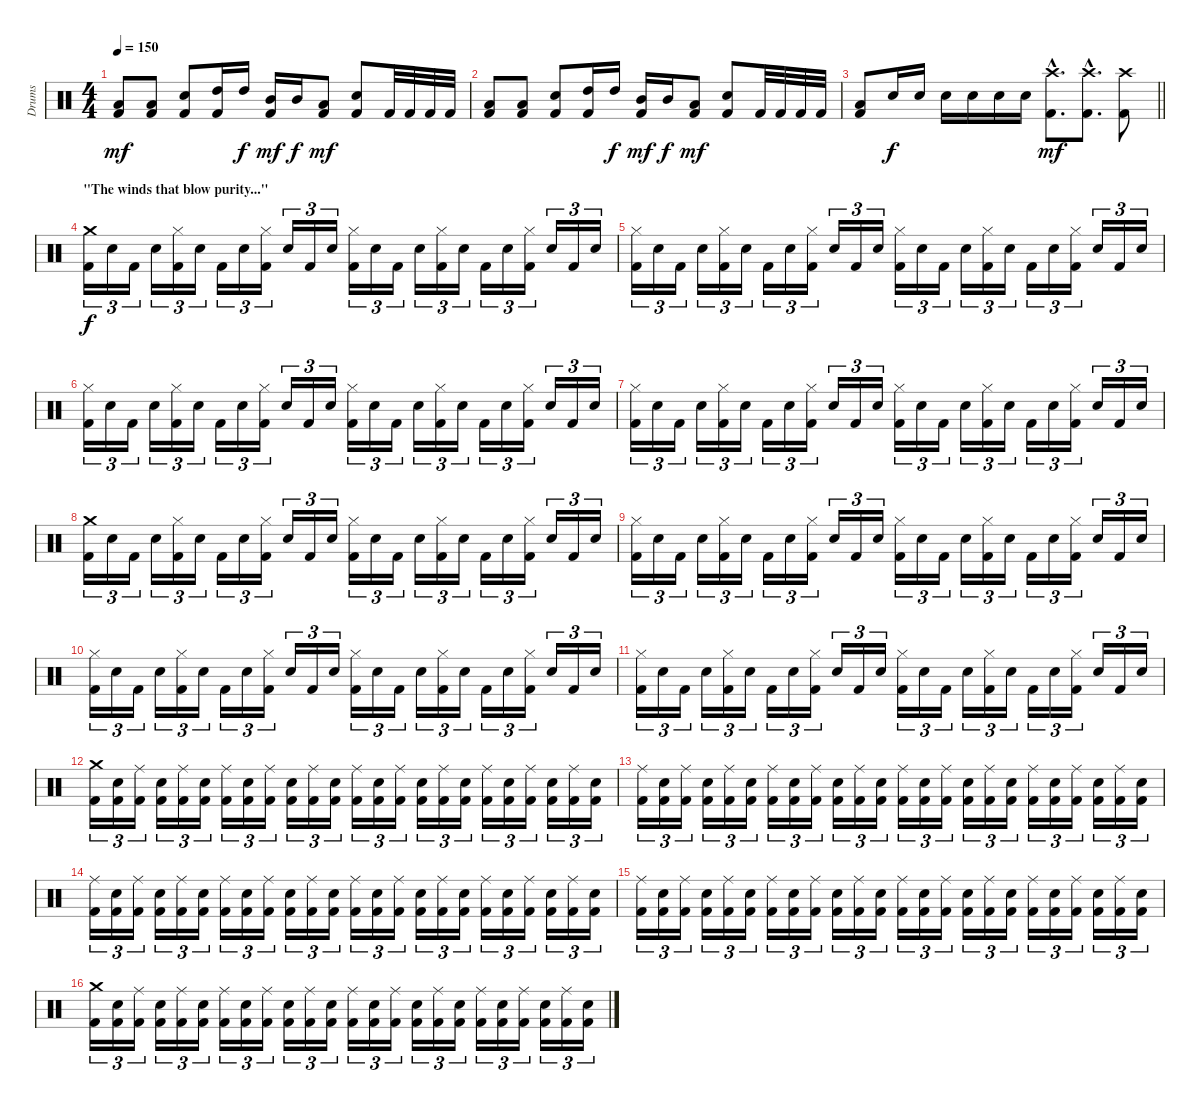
\track ("Drums" "Drums") {instrument percussion}
\staff {score}
\articulation defaults
\ts (4 4)
\tempo 150
\clef neutral
\ks c
("Low Tom (hit)" "Kick (hit) 2").8{dy mf} ("Low Tom (hit)" "Kick (hit) 2").8 ("Electric Snare (hit)" "Kick (hit) 2").8 ("High Tom (hit)" "Kick (hit) 2").16 "High Tom (hit)".16{dy f} ("Mid Tom (hit)" "Kick (hit) 2").16{dy mf} "Mid Tom (hit)".16{dy f} ("Low Tom (hit)" "Kick (hit) 2").8{dy mf} ("Electric Snare (hit)" "Kick (hit) 2").8 "Kick (hit) 2".32 "Kick (hit) 2".32 "Kick (hit) 2".32 "Kick (hit) 2".32 |
("Low Tom (hit)" "Kick (hit) 2").8 ("Low Tom (hit)" "Kick (hit) 2").8 ("Electric Snare (hit)" "Kick (hit) 2").8 ("High Tom (hit)" "Kick (hit) 2").16 "High Tom (hit)".16{dy f} ("Mid Tom (hit)" "Kick (hit) 2").16{dy mf} "Mid Tom (hit)".16{dy f} ("Low Tom (hit)" "Kick (hit) 2").8{dy mf} ("Electric Snare (hit)" "Kick (hit) 2").8 "Kick (hit) 2".32 "Kick (hit) 2".32 "Kick (hit) 2".32 "Kick (hit) 2".32 |
\barLineRight lightlight
("Low Tom (hit)" "Kick (hit) 2").8 "Electric Snare (hit)".16{dy f} "Electric Snare (hit)".16 "Electric Snare (hit)".16 "Electric Snare (hit)".16 "Electric Snare (hit)".16 "Electric Snare (hit)".16 ("Crash high (hit)"{hac} "Kick (hit) 2"{hac}).8{d dy mf} ("Crash high (hit)"{hac} "Kick (hit) 2"{hac}).8{d} ("Crash high (hit)" "Kick (hit) 2").8 |
\section ("" "\"The winds that blow purity...\"")
("Crash medium (hit)" "Kick (hit) 2").16{tu (3 2) dy f} "Electric Snare (hit)".16{tu (3 2)} "Kick (hit) 2".16{tu (3 2)} "Electric Snare (hit)".16{tu (3 2)} ("Hi-Hat (closed)" "Kick (hit) 2").16{tu (3 2)} "Electric Snare (hit)".16{tu (3 2)} "Kick (hit) 2".16{tu (3 2)} "Electric Snare (hit)".16{tu (3 2)} ("Hi-Hat (closed)" "Kick (hit) 2").16{tu (3 2)} "Electric Snare (hit)".16{tu (3 2)} "Kick (hit) 2".16{tu (3 2)} "Electric Snare (hit)".16{tu (3 2)} ("Hi-Hat (closed)" "Kick (hit) 2").16{tu (3 2)} "Electric Snare (hit)".16{tu (3 2)} "Kick (hit) 2".16{tu (3 2)} "Electric Snare (hit)".16{tu (3 2)} ("Hi-Hat (closed)" "Kick (hit) 2").16{tu (3 2)} "Electric Snare (hit)".16{tu (3 2)} "Kick (hit) 2".16{tu (3 2)} "Electric Snare (hit)".16{tu (3 2)} ("Hi-Hat (closed)" "Kick (hit) 2").16{tu (3 2)} "Electric Snare (hit)".16{tu (3 2)} "Kick (hit) 2".16{tu (3 2)} "Electric Snare (hit)".16{tu (3 2)} |
("Hi-Hat (closed)" "Kick (hit) 2").16{tu (3 2)} "Electric Snare (hit)".16{tu (3 2)} "Kick (hit) 2".16{tu (3 2)} "Electric Snare (hit)".16{tu (3 2)} ("Hi-Hat (closed)" "Kick (hit) 2").16{tu (3 2)} "Electric Snare (hit)".16{tu (3 2)} "Kick (hit) 2".16{tu (3 2)} "Electric Snare (hit)".16{tu (3 2)} ("Hi-Hat (closed)" "Kick (hit) 2").16{tu (3 2)} "Electric Snare (hit)".16{tu (3 2)} "Kick (hit) 2".16{tu (3 2)} "Electric Snare (hit)".16{tu (3 2)} ("Hi-Hat (closed)" "Kick (hit) 2").16{tu (3 2)} "Electric Snare (hit)".16{tu (3 2)} "Kick (hit) 2".16{tu (3 2)} "Electric Snare (hit)".16{tu (3 2)} ("Hi-Hat (closed)" "Kick (hit) 2").16{tu (3 2)} "Electric Snare (hit)".16{tu (3 2)} "Kick (hit) 2".16{tu (3 2)} "Electric Snare (hit)".16{tu (3 2)} ("Hi-Hat (closed)" "Kick (hit) 2").16{tu (3 2)} "Electric Snare (hit)".16{tu (3 2)} "Kick (hit) 2".16{tu (3 2)} "Electric Snare (hit)".16{tu (3 2)} |
("Hi-Hat (closed)" "Kick (hit) 2").16{tu (3 2)} "Electric Snare (hit)".16{tu (3 2)} "Kick (hit) 2".16{tu (3 2)} "Electric Snare (hit)".16{tu (3 2)} ("Hi-Hat (closed)" "Kick (hit) 2").16{tu (3 2)} "Electric Snare (hit)".16{tu (3 2)} "Kick (hit) 2".16{tu (3 2)} "Electric Snare (hit)".16{tu (3 2)} ("Hi-Hat (closed)" "Kick (hit) 2").16{tu (3 2)} "Electric Snare (hit)".16{tu (3 2)} "Kick (hit) 2".16{tu (3 2)} "Electric Snare (hit)".16{tu (3 2)} ("Hi-Hat (closed)" "Kick (hit) 2").16{tu (3 2)} "Electric Snare (hit)".16{tu (3 2)} "Kick (hit) 2".16{tu (3 2)} "Electric Snare (hit)".16{tu (3 2)} ("Hi-Hat (closed)" "Kick (hit) 2").16{tu (3 2)} "Electric Snare (hit)".16{tu (3 2)} "Kick (hit) 2".16{tu (3 2)} "Electric Snare (hit)".16{tu (3 2)} ("Hi-Hat (closed)" "Kick (hit) 2").16{tu (3 2)} "Electric Snare (hit)".16{tu (3 2)} "Kick (hit) 2".16{tu (3 2)} "Electric Snare (hit)".16{tu (3 2)} |
("Hi-Hat (closed)" "Kick (hit) 2").16{tu (3 2)} "Electric Snare (hit)".16{tu (3 2)} "Kick (hit) 2".16{tu (3 2)} "Electric Snare (hit)".16{tu (3 2)} ("Hi-Hat (closed)" "Kick (hit) 2").16{tu (3 2)} "Electric Snare (hit)".16{tu (3 2)} "Kick (hit) 2".16{tu (3 2)} "Electric Snare (hit)".16{tu (3 2)} ("Hi-Hat (closed)" "Kick (hit) 2").16{tu (3 2)} "Electric Snare (hit)".16{tu (3 2)} "Kick (hit) 2".16{tu (3 2)} "Electric Snare (hit)".16{tu (3 2)} ("Hi-Hat (closed)" "Kick (hit) 2").16{tu (3 2)} "Electric Snare (hit)".16{tu (3 2)} "Kick (hit) 2".16{tu (3 2)} "Electric Snare (hit)".16{tu (3 2)} ("Hi-Hat (closed)" "Kick (hit) 2").16{tu (3 2)} "Electric Snare (hit)".16{tu (3 2)} "Kick (hit) 2".16{tu (3 2)} "Electric Snare (hit)".16{tu (3 2)} ("Hi-Hat (closed)" "Kick (hit) 2").16{tu (3 2)} "Electric Snare (hit)".16{tu (3 2)} "Kick (hit) 2".16{tu (3 2)} "Electric Snare (hit)".16{tu (3 2)} |
("Crash medium (hit)" "Kick (hit) 2").16{tu (3 2)} "Electric Snare (hit)".16{tu (3 2)} "Kick (hit) 2".16{tu (3 2)} "Electric Snare (hit)".16{tu (3 2)} ("Hi-Hat (closed)" "Kick (hit) 2").16{tu (3 2)} "Electric Snare (hit)".16{tu (3 2)} "Kick (hit) 2".16{tu (3 2)} "Electric Snare (hit)".16{tu (3 2)} ("Hi-Hat (closed)" "Kick (hit) 2").16{tu (3 2)} "Electric Snare (hit)".16{tu (3 2)} "Kick (hit) 2".16{tu (3 2)} "Electric Snare (hit)".16{tu (3 2)} ("Hi-Hat (closed)" "Kick (hit) 2").16{tu (3 2)} "Electric Snare (hit)".16{tu (3 2)} "Kick (hit) 2".16{tu (3 2)} "Electric Snare (hit)".16{tu (3 2)} ("Hi-Hat (closed)" "Kick (hit) 2").16{tu (3 2)} "Electric Snare (hit)".16{tu (3 2)} "Kick (hit) 2".16{tu (3 2)} "Electric Snare (hit)".16{tu (3 2)} ("Hi-Hat (closed)" "Kick (hit) 2").16{tu (3 2)} "Electric Snare (hit)".16{tu (3 2)} "Kick (hit) 2".16{tu (3 2)} "Electric Snare (hit)".16{tu (3 2)} |
("Hi-Hat (closed)" "Kick (hit) 2").16{tu (3 2)} "Electric Snare (hit)".16{tu (3 2)} "Kick (hit) 2".16{tu (3 2)} "Electric Snare (hit)".16{tu (3 2)} ("Hi-Hat (closed)" "Kick (hit) 2").16{tu (3 2)} "Electric Snare (hit)".16{tu (3 2)} "Kick (hit) 2".16{tu (3 2)} "Electric Snare (hit)".16{tu (3 2)} ("Hi-Hat (closed)" "Kick (hit) 2").16{tu (3 2)} "Electric Snare (hit)".16{tu (3 2)} "Kick (hit) 2".16{tu (3 2)} "Electric Snare (hit)".16{tu (3 2)} ("Hi-Hat (closed)" "Kick (hit) 2").16{tu (3 2)} "Electric Snare (hit)".16{tu (3 2)} "Kick (hit) 2".16{tu (3 2)} "Electric Snare (hit)".16{tu (3 2)} ("Hi-Hat (closed)" "Kick (hit) 2").16{tu (3 2)} "Electric Snare (hit)".16{tu (3 2)} "Kick (hit) 2".16{tu (3 2)} "Electric Snare (hit)".16{tu (3 2)} ("Hi-Hat (closed)" "Kick (hit) 2").16{tu (3 2)} "Electric Snare (hit)".16{tu (3 2)} "Kick (hit) 2".16{tu (3 2)} "Electric Snare (hit)".16{tu (3 2)} |
("Hi-Hat (closed)" "Kick (hit) 2").16{tu (3 2)} "Electric Snare (hit)".16{tu (3 2)} "Kick (hit) 2".16{tu (3 2)} "Electric Snare (hit)".16{tu (3 2)} ("Hi-Hat (closed)" "Kick (hit) 2").16{tu (3 2)} "Electric Snare (hit)".16{tu (3 2)} "Kick (hit) 2".16{tu (3 2)} "Electric Snare (hit)".16{tu (3 2)} ("Hi-Hat (closed)" "Kick (hit) 2").16{tu (3 2)} "Electric Snare (hit)".16{tu (3 2)} "Kick (hit) 2".16{tu (3 2)} "Electric Snare (hit)".16{tu (3 2)} ("Hi-Hat (closed)" "Kick (hit) 2").16{tu (3 2)} "Electric Snare (hit)".16{tu (3 2)} "Kick (hit) 2".16{tu (3 2)} "Electric Snare (hit)".16{tu (3 2)} ("Hi-Hat (closed)" "Kick (hit) 2").16{tu (3 2)} "Electric Snare (hit)".16{tu (3 2)} "Kick (hit) 2".16{tu (3 2)} "Electric Snare (hit)".16{tu (3 2)} ("Hi-Hat (closed)" "Kick (hit) 2").16{tu (3 2)} "Electric Snare (hit)".16{tu (3 2)} "Kick (hit) 2".16{tu (3 2)} "Electric Snare (hit)".16{tu (3 2)} |
("Hi-Hat (closed)" "Kick (hit) 2").16{tu (3 2)} "Electric Snare (hit)".16{tu (3 2)} "Kick (hit) 2".16{tu (3 2)} "Electric Snare (hit)".16{tu (3 2)} ("Hi-Hat (closed)" "Kick (hit) 2").16{tu (3 2)} "Electric Snare (hit)".16{tu (3 2)} "Kick (hit) 2".16{tu (3 2)} "Electric Snare (hit)".16{tu (3 2)} ("Hi-Hat (closed)" "Kick (hit) 2").16{tu (3 2)} "Electric Snare (hit)".16{tu (3 2)} "Kick (hit) 2".16{tu (3 2)} "Electric Snare (hit)".16{tu (3 2)} ("Hi-Hat (closed)" "Kick (hit) 2").16{tu (3 2)} "Electric Snare (hit)".16{tu (3 2)} "Kick (hit) 2".16{tu (3 2)} "Electric Snare (hit)".16{tu (3 2)} ("Hi-Hat (closed)" "Kick (hit) 2").16{tu (3 2)} "Electric Snare (hit)".16{tu (3 2)} "Kick (hit) 2".16{tu (3 2)} "Electric Snare (hit)".16{tu (3 2)} ("Hi-Hat (closed)" "Kick (hit) 2").16{tu (3 2)} "Electric Snare (hit)".16{tu (3 2)} "Kick (hit) 2".16{tu (3 2)} "Electric Snare (hit)".16{tu (3 2)} |
("Crash medium (hit)" "Kick (hit) 2").16{tu (3 2)} ("Electric Snare (hit)" "Kick (hit) 2").16{tu (3 2)} ("Ride (middle)" "Kick (hit) 2").16{tu (3 2)} ("Electric Snare (hit)" "Kick (hit) 2").16{tu (3 2)} ("Ride (middle)" "Kick (hit) 2").16{tu (3 2)} ("Electric Snare (hit)" "Kick (hit) 2").16{tu (3 2)} ("Ride (middle)" "Kick (hit) 2").16{tu (3 2)} ("Electric Snare (hit)" "Kick (hit) 2").16{tu (3 2)} ("Ride (middle)" "Kick (hit) 2").16{tu (3 2)} ("Electric Snare (hit)" "Kick (hit) 2").16{tu (3 2)} ("Ride (middle)" "Kick (hit) 2").16{tu (3 2)} ("Electric Snare (hit)" "Kick (hit) 2").16{tu (3 2)} ("Ride (middle)" "Kick (hit) 2").16{tu (3 2)} ("Electric Snare (hit)" "Kick (hit) 2").16{tu (3 2)} ("Ride (middle)" "Kick (hit) 2").16{tu (3 2)} ("Electric Snare (hit)" "Kick (hit) 2").16{tu (3 2)} ("Ride (middle)" "Kick (hit) 2").16{tu (3 2)} ("Electric Snare (hit)" "Kick (hit) 2").16{tu (3 2)} ("Ride (middle)" "Kick (hit) 2").16{tu (3 2)} ("Electric Snare (hit)" "Kick (hit) 2").16{tu (3 2)} ("Ride (middle)" "Kick (hit) 2").16{tu (3 2)} ("Electric Snare (hit)" "Kick (hit) 2").16{tu (3 2)} ("Ride (middle)" "Kick (hit) 2").16{tu (3 2)} ("Electric Snare (hit)" "Kick (hit) 2").16{tu (3 2)} |
("Ride (middle)" "Kick (hit) 2").16{tu (3 2)} ("Electric Snare (hit)" "Kick (hit) 2").16{tu (3 2)} ("Ride (middle)" "Kick (hit) 2").16{tu (3 2)} ("Electric Snare (hit)" "Kick (hit) 2").16{tu (3 2)} ("Ride (middle)" "Kick (hit) 2").16{tu (3 2)} ("Electric Snare (hit)" "Kick (hit) 2").16{tu (3 2)} ("Ride (middle)" "Kick (hit) 2").16{tu (3 2)} ("Electric Snare (hit)" "Kick (hit) 2").16{tu (3 2)} ("Ride (middle)" "Kick (hit) 2").16{tu (3 2)} ("Electric Snare (hit)" "Kick (hit) 2").16{tu (3 2)} ("Ride (middle)" "Kick (hit) 2").16{tu (3 2)} ("Electric Snare (hit)" "Kick (hit) 2").16{tu (3 2)} ("Ride (middle)" "Kick (hit) 2").16{tu (3 2)} ("Electric Snare (hit)" "Kick (hit) 2").16{tu (3 2)} ("Ride (middle)" "Kick (hit) 2").16{tu (3 2)} ("Electric Snare (hit)" "Kick (hit) 2").16{tu (3 2)} ("Ride (middle)" "Kick (hit) 2").16{tu (3 2)} ("Electric Snare (hit)" "Kick (hit) 2").16{tu (3 2)} ("Ride (middle)" "Kick (hit) 2").16{tu (3 2)} ("Electric Snare (hit)" "Kick (hit) 2").16{tu (3 2)} ("Ride (middle)" "Kick (hit) 2").16{tu (3 2)} ("Electric Snare (hit)" "Kick (hit) 2").16{tu (3 2)} ("Ride (middle)" "Kick (hit) 2").16{tu (3 2)} ("Electric Snare (hit)" "Kick (hit) 2").16{tu (3 2)} |
("Ride (middle)" "Kick (hit) 2").16{tu (3 2)} ("Electric Snare (hit)" "Kick (hit) 2").16{tu (3 2)} ("Ride (middle)" "Kick (hit) 2").16{tu (3 2)} ("Electric Snare (hit)" "Kick (hit) 2").16{tu (3 2)} ("Ride (middle)" "Kick (hit) 2").16{tu (3 2)} ("Electric Snare (hit)" "Kick (hit) 2").16{tu (3 2)} ("Ride (middle)" "Kick (hit) 2").16{tu (3 2)} ("Electric Snare (hit)" "Kick (hit) 2").16{tu (3 2)} ("Ride (middle)" "Kick (hit) 2").16{tu (3 2)} ("Electric Snare (hit)" "Kick (hit) 2").16{tu (3 2)} ("Ride (middle)" "Kick (hit) 2").16{tu (3 2)} ("Electric Snare (hit)" "Kick (hit) 2").16{tu (3 2)} ("Ride (middle)" "Kick (hit) 2").16{tu (3 2)} ("Electric Snare (hit)" "Kick (hit) 2").16{tu (3 2)} ("Ride (middle)" "Kick (hit) 2").16{tu (3 2)} ("Electric Snare (hit)" "Kick (hit) 2").16{tu (3 2)} ("Ride (middle)" "Kick (hit) 2").16{tu (3 2)} ("Electric Snare (hit)" "Kick (hit) 2").16{tu (3 2)} ("Ride (middle)" "Kick (hit) 2").16{tu (3 2)} ("Electric Snare (hit)" "Kick (hit) 2").16{tu (3 2)} ("Ride (middle)" "Kick (hit) 2").16{tu (3 2)} ("Electric Snare (hit)" "Kick (hit) 2").16{tu (3 2)} ("Ride (middle)" "Kick (hit) 2").16{tu (3 2)} ("Electric Snare (hit)" "Kick (hit) 2").16{tu (3 2)} |
("Ride (middle)" "Kick (hit) 2").16{tu (3 2)} ("Electric Snare (hit)" "Kick (hit) 2").16{tu (3 2)} ("Ride (middle)" "Kick (hit) 2").16{tu (3 2)} ("Electric Snare (hit)" "Kick (hit) 2").16{tu (3 2)} ("Ride (middle)" "Kick (hit) 2").16{tu (3 2)} ("Electric Snare (hit)" "Kick (hit) 2").16{tu (3 2)} ("Ride (middle)" "Kick (hit) 2").16{tu (3 2)} ("Electric Snare (hit)" "Kick (hit) 2").16{tu (3 2)} ("Ride (middle)" "Kick (hit) 2").16{tu (3 2)} ("Electric Snare (hit)" "Kick (hit) 2").16{tu (3 2)} ("Ride (middle)" "Kick (hit) 2").16{tu (3 2)} ("Electric Snare (hit)" "Kick (hit) 2").16{tu (3 2)} ("Ride (middle)" "Kick (hit) 2").16{tu (3 2)} ("Electric Snare (hit)" "Kick (hit) 2").16{tu (3 2)} ("Ride (middle)" "Kick (hit) 2").16{tu (3 2)} ("Electric Snare (hit)" "Kick (hit) 2").16{tu (3 2)} ("Ride (middle)" "Kick (hit) 2").16{tu (3 2)} ("Electric Snare (hit)" "Kick (hit) 2").16{tu (3 2)} ("Ride (middle)" "Kick (hit) 2").16{tu (3 2)} ("Electric Snare (hit)" "Kick (hit) 2").16{tu (3 2)} ("Ride (middle)" "Kick (hit) 2").16{tu (3 2)} ("Electric Snare (hit)" "Kick (hit) 2").16{tu (3 2)} ("Ride (middle)" "Kick (hit) 2").16{tu (3 2)} ("Electric Snare (hit)" "Kick (hit) 2").16{tu (3 2)} |
("Crash medium (hit)" "Kick (hit) 2").16{tu (3 2)} ("Electric Snare (hit)" "Kick (hit) 2").16{tu (3 2)} ("Ride (middle)" "Kick (hit) 2").16{tu (3 2)} ("Electric Snare (hit)" "Kick (hit) 2").16{tu (3 2)} ("Ride (middle)" "Kick (hit) 2").16{tu (3 2)} ("Electric Snare (hit)" "Kick (hit) 2").16{tu (3 2)} ("Ride (middle)" "Kick (hit) 2").16{tu (3 2)} ("Electric Snare (hit)" "Kick (hit) 2").16{tu (3 2)} ("Ride (middle)" "Kick (hit) 2").16{tu (3 2)} ("Electric Snare (hit)" "Kick (hit) 2").16{tu (3 2)} ("Ride (middle)" "Kick (hit) 2").16{tu (3 2)} ("Electric Snare (hit)" "Kick (hit) 2").16{tu (3 2)} ("Ride (middle)" "Kick (hit) 2").16{tu (3 2)} ("Electric Snare (hit)" "Kick (hit) 2").16{tu (3 2)} ("Ride (middle)" "Kick (hit) 2").16{tu (3 2)} ("Electric Snare (hit)" "Kick (hit) 2").16{tu (3 2)} ("Ride (middle)" "Kick (hit) 2").16{tu (3 2)} ("Electric Snare (hit)" "Kick (hit) 2").16{tu (3 2)} ("Ride (middle)" "Kick (hit) 2").16{tu (3 2)} ("Electric Snare (hit)" "Kick (hit) 2").16{tu (3 2)} ("Ride (middle)" "Kick (hit) 2").16{tu (3 2)} ("Electric Snare (hit)" "Kick (hit) 2").16{tu (3 2)} ("Ride (middle)" "Kick (hit) 2").16{tu (3 2)} ("Electric Snare (hit)" "Kick (hit) 2").16{tu (3 2)}
